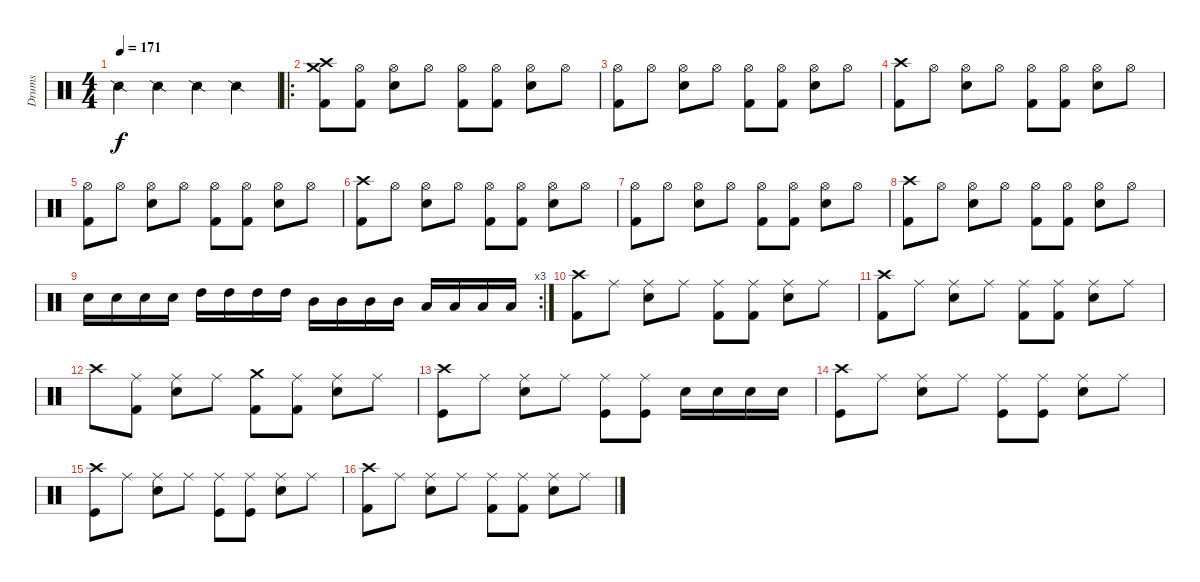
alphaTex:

\track ("Drums" "Drums") {instrument percussion}
\staff {score}
\articulation defaults
\ts (4 4)
\tempo 171
\clef neutral
\ks c "Snare (side stick) 2".4{dy f} "Snare (side stick) 2".4 "Snare (side stick) 2".4 "Snare (side stick) 2".4
|
\ro
("Kick (hit) 2" "Crash high (hit)" "Crash medium (hit)").8 ("Hi-Hat (open)" "Kick (hit) 2").8 ("Hi-Hat (open)" "Electric Snare (hit)").8 "Hi-Hat (open)".8 ("Hi-Hat (open)" "Kick (hit) 2").8 ("Hi-Hat (open)" "Kick (hit) 2").8 ("Hi-Hat (open)" "Electric Snare (hit)").8 "Hi-Hat (open)".8 |
("Hi-Hat (open)" "Kick (hit) 2").8 "Hi-Hat (open)".8 ("Hi-Hat (open)" "Electric Snare (hit)").8 "Hi-Hat (open)".8 ("Hi-Hat (open)" "Kick (hit) 2").8 ("Hi-Hat (open)" "Kick (hit) 2").8 ("Hi-Hat (open)" "Electric Snare (hit)").8 "Hi-Hat (open)".8 |
("Crash high (hit)" "Kick (hit) 2").8 "Hi-Hat (open)".8 ("Hi-Hat (open)" "Electric Snare (hit)").8 "Hi-Hat (open)".8 ("Hi-Hat (open)" "Kick (hit) 2").8 ("Hi-Hat (open)" "Kick (hit) 2").8 ("Hi-Hat (open)" "Electric Snare (hit)").8 "Hi-Hat (open)".8 |
("Hi-Hat (open)" "Kick (hit) 2").8 "Hi-Hat (open)".8 ("Hi-Hat (open)" "Electric Snare (hit)").8 "Hi-Hat (open)".8 ("Hi-Hat (open)" "Kick (hit) 2").8 ("Hi-Hat (open)" "Kick (hit) 2").8 ("Hi-Hat (open)" "Electric Snare (hit)").8 "Hi-Hat (open)".8 |
("Crash high (hit)" "Kick (hit) 2").8 "Hi-Hat (open)".8 ("Hi-Hat (open)" "Electric Snare (hit)").8 "Hi-Hat (open)".8 ("Hi-Hat (open)" "Kick (hit) 2").8 ("Hi-Hat (open)" "Kick (hit) 2").8 ("Hi-Hat (open)" "Electric Snare (hit)").8 "Hi-Hat (open)".8 |
("Hi-Hat (open)" "Kick (hit) 2").8 "Hi-Hat (open)".8 ("Hi-Hat (open)" "Electric Snare (hit)").8 "Hi-Hat (open)".8 ("Hi-Hat (open)" "Kick (hit) 2").8 ("Hi-Hat (open)" "Kick (hit) 2").8 ("Hi-Hat (open)" "Electric Snare (hit)").8 "Hi-Hat (open)".8 |
("Crash high (hit)" "Kick (hit) 2").8 "Hi-Hat (open)".8 ("Hi-Hat (open)" "Electric Snare (hit)").8 "Hi-Hat (open)".8 ("Hi-Hat (open)" "Kick (hit) 2").8 ("Hi-Hat (open)" "Kick (hit) 2").8 ("Hi-Hat (open)" "Electric Snare (hit)").8 "Hi-Hat (open)".8 |
\rc 3 "Electric Snare (hit)".16 "Electric Snare (hit)".16 "Electric Snare (hit)".16 "Electric Snare (hit)".16 "High Tom (hit)".16 "High Tom (hit)".16 "High Tom (hit)".16 "High Tom (hit)".16 "Mid Tom (hit)".16 "Mid Tom (hit)".16 "Mid Tom (hit)".16 "Mid Tom (hit)".16 "Low Tom (hit)".16 "Low Tom (hit)".16 "Low Tom (hit)".16 "Low Tom (hit)".16
|
("Crash high (hit)" "Kick (hit) 2").8 "Ride (middle)".8 ("Ride (middle)" "Electric Snare (hit)").8 "Ride (middle)".8 ("Ride (middle)" "Kick (hit) 2").8 ("Ride (middle)" "Kick (hit) 2").8 ("Ride (middle)" "Electric Snare (hit)").8 "Ride (middle)".8 |
("Crash high (hit)" "Kick (hit) 2").8 "Ride (middle)".8 ("Ride (middle)" "Electric Snare (hit)").8 "Ride (middle)".8 ("Ride (middle)" "Kick (hit) 2").8 ("Ride (middle)" "Kick (hit) 2").8 ("Ride (middle)" "Electric Snare (hit)").8 "Ride (middle)".8 |
"Crash high (hit)".8 ("Ride (middle)" "Kick (hit) 2").8 ("Ride (middle)" "Electric Snare (hit)").8 "Ride (middle)".8 ("Crash medium (hit)" "Kick (hit) 2").8 ("Ride (middle)" "Kick (hit) 2").8 ("Ride (middle)" "Electric Snare (hit)").8 "Ride (middle)".8 |
("Crash high (hit)" "Kick (hit)").8 "Ride (middle)".8 ("Ride (middle)" "Electric Snare (hit)").8 "Ride (middle)".8 ("Ride (middle)" "Kick (hit)").8 ("Ride (middle)" "Kick (hit)").8 "Electric Snare (hit)".16 "Electric Snare (hit)".16 "Electric Snare (hit)".16 "Electric Snare (hit)".16 |
("Crash high (hit)" "Kick (hit)").8 "Ride (middle)".8 ("Ride (middle)" "Electric Snare (hit)").8 "Ride (middle)".8 ("Ride (middle)" "Kick (hit)").8 ("Ride (middle)" "Kick (hit)").8 ("Ride (middle)" "Electric Snare (hit)").8 "Ride (middle)".8 |
("Crash high (hit)" "Kick (hit)").8 "Ride (middle)".8 ("Ride (middle)" "Electric Snare (hit)").8 "Ride (middle)".8 ("Ride (middle)" "Kick (hit)").8 ("Ride (middle)" "Kick (hit)").8 ("Ride (middle)" "Electric Snare (hit)").8 "Ride (middle)".8 |
("Crash high (hit)" "Kick (hit) 2").8 "Ride (middle)".8 ("Ride (middle)" "Electric Snare (hit)").8 "Ride (middle)".8 ("Ride (middle)" "Kick (hit) 2").8 ("Ride (middle)" "Kick (hit) 2").8 ("Ride (middle)" "Electric Snare (hit)").8 "Ride (middle)".8
